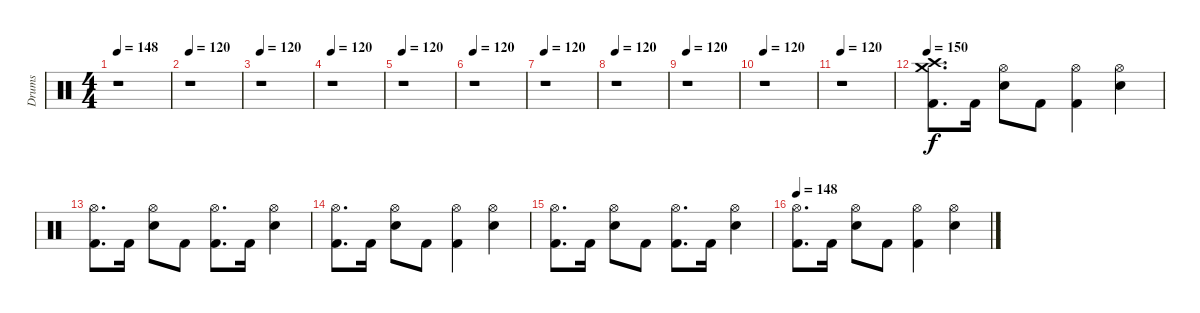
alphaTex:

\track ("Drums" "Drums") {instrument percussion}
\staff {score}
\articulation defaults
\ts (4 4)
\tempo 148
\tempo 120
\tempo 148
\clef neutral
\ks c
r.1{dy f} |
\tempo 120
r.1 |
\tempo 120
r.1 |
\tempo 120
r.1 |
\tempo 120
r.1 |
\tempo 120
r.1 |
\tempo 120
r.1 |
\tempo 120
r.1 |
\tempo 120
r.1 |
\tempo 120
r.1 |
\tempo 120
r.1 |
\tempo 150
("Crash high (hit)" "Crash medium (hit)" "Kick (hit) 2").8{d} "Kick (hit) 2".16 ("Hi-Hat (open)" "Snare (hit) 2").8 "Kick (hit) 2".8 ("Hi-Hat (open)" "Kick (hit) 2").4 ("Hi-Hat (open)" "Snare (hit) 2").4 |
("Hi-Hat (open)" "Kick (hit) 2").8{d} "Kick (hit) 2".16 ("Hi-Hat (open)" "Snare (hit) 2").8 "Kick (hit) 2".8 ("Hi-Hat (open)" "Kick (hit) 2").8{d} "Kick (hit) 2".16 ("Hi-Hat (open)" "Snare (hit) 2").4 |
("Hi-Hat (open)" "Kick (hit) 2").8{d} "Kick (hit) 2".16 ("Hi-Hat (open)" "Snare (hit) 2").8 "Kick (hit) 2".8 ("Hi-Hat (open)" "Kick (hit) 2").4 ("Hi-Hat (open)" "Snare (hit) 2").4 |
("Hi-Hat (open)" "Kick (hit) 2").8{d} "Kick (hit) 2".16 ("Hi-Hat (open)" "Snare (hit) 2").8 "Kick (hit) 2".8 ("Hi-Hat (open)" "Kick (hit) 2").8{d} "Kick (hit) 2".16 ("Hi-Hat (open)" "Snare (hit) 2").4 |
\tempo 148
("Hi-Hat (open)" "Kick (hit) 2").8{d} "Kick (hit) 2".16 ("Hi-Hat (open)" "Snare (hit) 2").8 "Kick (hit) 2".8 ("Hi-Hat (open)" "Kick (hit) 2").4 ("Hi-Hat (open)" "Snare (hit) 2").4
